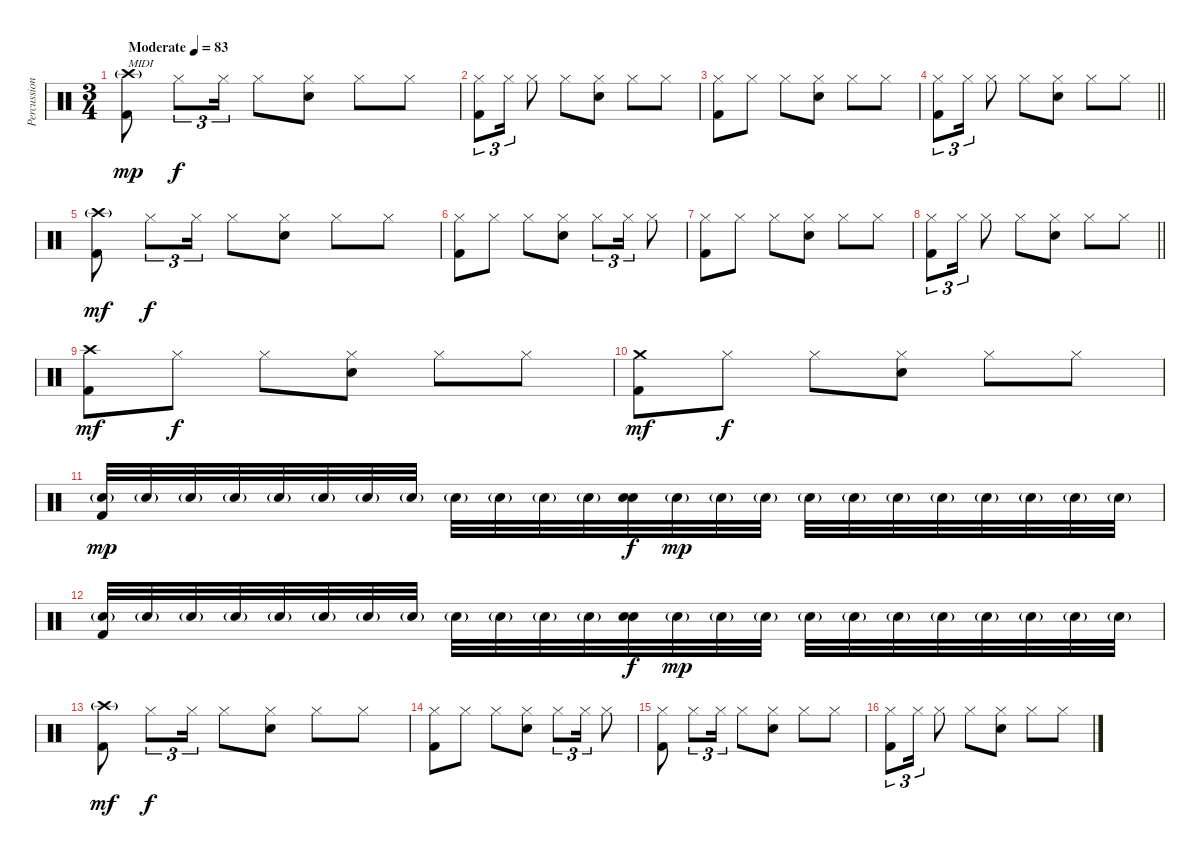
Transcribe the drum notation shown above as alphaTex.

\track ("Percussions" "Percussion") {instrument percussion}
\staff {score}
\articulation defaults
\ts (3 4)
\section ("" "")
\tempo (83 "Moderate")
\clef neutral
\ks c
("Kick (hit) 2" "Crash high (hit)"{g}).8{txt "MIDI" dy mp} "Hi-Hat (closed)".8{tu (3 2) dy f} "Hi-Hat (closed)".16{tu (3 2)} "Hi-Hat (closed)".8 ("Electric Snare (hit)" "Hi-Hat (closed)").8 "Hi-Hat (closed)".8 "Hi-Hat (closed)".8 |
("Kick (hit) 2" "Hi-Hat (closed)").8{tu (3 2)} "Hi-Hat (closed)".16{tu (3 2)} "Hi-Hat (closed)".8 "Hi-Hat (closed)".8 ("Electric Snare (hit)" "Hi-Hat (closed)").8 "Hi-Hat (closed)".8 "Hi-Hat (closed)".8 |
("Kick (hit) 2" "Hi-Hat (closed)").8 "Hi-Hat (closed)".8 "Hi-Hat (closed)".8 ("Electric Snare (hit)" "Hi-Hat (closed)").8 "Hi-Hat (closed)".8 "Hi-Hat (closed)".8 |
\barLineRight lightlight
("Kick (hit) 2" "Hi-Hat (closed)").8{tu (3 2)} "Hi-Hat (closed)".16{tu (3 2)} "Hi-Hat (closed)".8 "Hi-Hat (closed)".8 ("Electric Snare (hit)" "Hi-Hat (closed)").8 "Hi-Hat (closed)".8 "Hi-Hat (closed)".8 |
\section ("" "")
("Kick (hit) 2" "Crash high (hit)"{g}).8{dy mf} "Hi-Hat (closed)".8{tu (3 2) dy f} "Hi-Hat (closed)".16{tu (3 2)} "Hi-Hat (closed)".8 ("Electric Snare (hit)" "Hi-Hat (closed)").8 "Hi-Hat (closed)".8 "Hi-Hat (closed)".8 |
("Kick (hit) 2" "Hi-Hat (closed)").8 "Hi-Hat (closed)".8 "Hi-Hat (closed)".8 ("Electric Snare (hit)" "Hi-Hat (closed)").8 "Hi-Hat (closed)".8{tu (3 2)} "Hi-Hat (closed)".16{tu (3 2)} "Hi-Hat (closed)".8 |
("Kick (hit) 2" "Hi-Hat (closed)").8 "Hi-Hat (closed)".8 "Hi-Hat (closed)".8 ("Electric Snare (hit)" "Hi-Hat (closed)").8 "Hi-Hat (closed)".8 "Hi-Hat (closed)".8 |
\barLineRight lightlight
("Kick (hit) 2" "Hi-Hat (closed)").8{tu (3 2)} "Hi-Hat (closed)".16{tu (3 2)} "Hi-Hat (closed)".8 "Hi-Hat (closed)".8 ("Electric Snare (hit)" "Hi-Hat (closed)").8 "Hi-Hat (closed)".8 "Hi-Hat (closed)".8 |
("Kick (hit) 2" "Crash high (hit)").8{dy mf} "Hi-Hat (closed)".8{dy f} "Hi-Hat (closed)".8 ("Electric Snare (hit)" "Hi-Hat (closed)").8 "Hi-Hat (closed)".8 "Hi-Hat (closed)".8 |
("Kick (hit) 2" "Crash medium (hit)").8{dy mf} "Hi-Hat (closed)".8{dy f} "Hi-Hat (closed)".8 ("Electric Snare (hit)" "Hi-Hat (closed)").8 "Hi-Hat (closed)".8 "Hi-Hat (closed)".8 |
("Electric Snare (hit)"{g} "Kick (hit) 2").32{dy mp} "Electric Snare (hit)"{g}.32 "Electric Snare (hit)"{g}.32 "Electric Snare (hit)"{g}.32 "Electric Snare (hit)"{g}.32 "Electric Snare (hit)"{g}.32 "Electric Snare (hit)"{g}.32 "Electric Snare (hit)"{g}.32 "Electric Snare (hit)"{g}.32 "Electric Snare (hit)"{g}.32 "Electric Snare (hit)"{g}.32 "Electric Snare (hit)"{g}.32 ("Electric Snare (hit)" "Electric Snare (hit)").32{dy f} "Electric Snare (hit)"{g}.32{dy mp} "Electric Snare (hit)"{g}.32 "Electric Snare (hit)"{g}.32 "Electric Snare (hit)"{g}.32 "Electric Snare (hit)"{g}.32 "Electric Snare (hit)"{g}.32 "Electric Snare (hit)"{g}.32 "Electric Snare (hit)"{g}.32 "Electric Snare (hit)"{g}.32 "Electric Snare (hit)"{g}.32 "Electric Snare (hit)"{g}.32 |
("Electric Snare (hit)"{g} "Kick (hit) 2").32 "Electric Snare (hit)"{g}.32 "Electric Snare (hit)"{g}.32 "Electric Snare (hit)"{g}.32 "Electric Snare (hit)"{g}.32 "Electric Snare (hit)"{g}.32 "Electric Snare (hit)"{g}.32 "Electric Snare (hit)"{g}.32 "Electric Snare (hit)"{g}.32 "Electric Snare (hit)"{g}.32 "Electric Snare (hit)"{g}.32 "Electric Snare (hit)"{g}.32 ("Electric Snare (hit)" "Electric Snare (hit)").32{dy f} "Electric Snare (hit)"{g}.32{dy mp} "Electric Snare (hit)"{g}.32 "Electric Snare (hit)"{g}.32 "Electric Snare (hit)"{g}.32 "Electric Snare (hit)"{g}.32 "Electric Snare (hit)"{g}.32 "Electric Snare (hit)"{g}.32 "Electric Snare (hit)"{g}.32 "Electric Snare (hit)"{g}.32 "Electric Snare (hit)"{g}.32 "Electric Snare (hit)"{g}.32 |
("Kick (hit) 2" "Crash high (hit)"{g}).8{dy mf} "Hi-Hat (closed)".8{tu (3 2) dy f} "Hi-Hat (closed)".16{tu (3 2)} "Hi-Hat (closed)".8 ("Electric Snare (hit)" "Hi-Hat (closed)").8 "Hi-Hat (closed)".8 "Hi-Hat (closed)".8 |
("Kick (hit) 2" "Hi-Hat (closed)").8 "Hi-Hat (closed)".8 "Hi-Hat (closed)".8 ("Electric Snare (hit)" "Hi-Hat (closed)").8 "Hi-Hat (closed)".8{tu (3 2)} "Hi-Hat (closed)".16{tu (3 2)} "Hi-Hat (closed)".8 |
("Kick (hit) 2" "Hi-Hat (closed)").8 "Hi-Hat (closed)".8{tu (3 2)} "Hi-Hat (closed)".16{tu (3 2)} "Hi-Hat (closed)".8 ("Electric Snare (hit)" "Hi-Hat (closed)").8 "Hi-Hat (closed)".8 "Hi-Hat (closed)".8 |
("Kick (hit) 2" "Hi-Hat (closed)").8{tu (3 2)} "Hi-Hat (closed)".16{tu (3 2)} "Hi-Hat (closed)".8 "Hi-Hat (closed)".8 ("Electric Snare (hit)" "Hi-Hat (closed)").8 "Hi-Hat (closed)".8 "Hi-Hat (closed)".8
